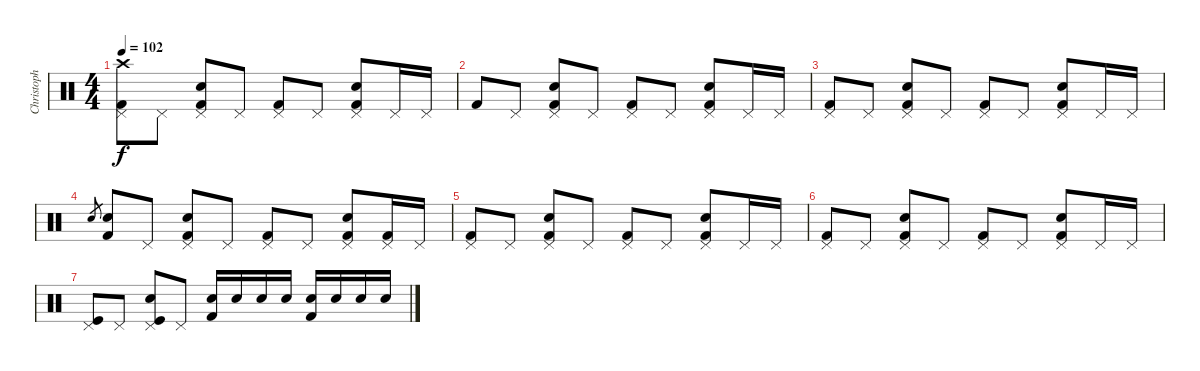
\track ("Christoph Schneider" "Christoph ") {instrument percussion}
\staff {score}
\articulation defaults
\ts (4 4)
\tempo 102
\clef neutral
\ks c
("Crash high (hit)" "Pedal Hi-Hat (hit)" "Kick (hit) 2").8{dy f} "Pedal Hi-Hat (hit)".8 ("Pedal Hi-Hat (hit)" "Snare (hit) 2" "Kick (hit) 2").8 "Pedal Hi-Hat (hit)".8 ("Pedal Hi-Hat (hit)" "Kick (hit) 2").8 "Pedal Hi-Hat (hit)".8 ("Pedal Hi-Hat (hit)" "Snare (hit) 2" "Kick (hit) 2").8 "Pedal Hi-Hat (hit)".16 "Pedal Hi-Hat (hit)".16 |
"Kick (hit) 2".8 "Pedal Hi-Hat (hit)".8 ("Pedal Hi-Hat (hit)" "Snare (hit) 2" "Kick (hit) 2").8 "Pedal Hi-Hat (hit)".8 ("Pedal Hi-Hat (hit)" "Kick (hit) 2").8 "Pedal Hi-Hat (hit)".8 ("Pedal Hi-Hat (hit)" "Snare (hit) 2" "Kick (hit) 2").8 "Pedal Hi-Hat (hit)".16 "Pedal Hi-Hat (hit)".16 |
("Pedal Hi-Hat (hit)" "Kick (hit) 2").8 "Pedal Hi-Hat (hit)".8 ("Pedal Hi-Hat (hit)" "Snare (hit) 2" "Kick (hit) 2").8 "Pedal Hi-Hat (hit)".8 ("Pedal Hi-Hat (hit)" "Kick (hit) 2").8 "Pedal Hi-Hat (hit)".8 ("Pedal Hi-Hat (hit)" "Snare (hit) 2" "Kick (hit) 2").8 "Pedal Hi-Hat (hit)".16 "Pedal Hi-Hat (hit)".16 |
"Snare (hit) 2".8{gr} ("Snare (hit) 2" "Kick (hit) 2").8 "Pedal Hi-Hat (hit)".8 ("Pedal Hi-Hat (hit)" "Snare (hit) 2" "Kick (hit) 2").8 "Pedal Hi-Hat (hit)".8 ("Pedal Hi-Hat (hit)" "Kick (hit) 2").8 "Pedal Hi-Hat (hit)".8 ("Pedal Hi-Hat (hit)" "Snare (hit) 2" "Kick (hit) 2").8 ("Pedal Hi-Hat (hit)" "Kick (hit) 2").16 "Pedal Hi-Hat (hit)".16 |
("Pedal Hi-Hat (hit)" "Kick (hit) 2").8 "Pedal Hi-Hat (hit)".8 ("Pedal Hi-Hat (hit)" "Snare (hit) 2" "Kick (hit) 2").8 "Pedal Hi-Hat (hit)".8 ("Pedal Hi-Hat (hit)" "Kick (hit) 2").8 "Pedal Hi-Hat (hit)".8 ("Pedal Hi-Hat (hit)" "Snare (hit) 2" "Kick (hit) 2").8 "Pedal Hi-Hat (hit)".16 "Pedal Hi-Hat (hit)".16 |
("Pedal Hi-Hat (hit)" "Kick (hit) 2").8 "Pedal Hi-Hat (hit)".8 ("Pedal Hi-Hat (hit)" "Snare (hit) 2" "Kick (hit) 2").8 "Pedal Hi-Hat (hit)".8 ("Pedal Hi-Hat (hit)" "Kick (hit) 2").8 "Pedal Hi-Hat (hit)".8 ("Pedal Hi-Hat (hit)" "Snare (hit) 2" "Kick (hit) 2").8 "Pedal Hi-Hat (hit)".16 "Pedal Hi-Hat (hit)".16 |
("Pedal Hi-Hat (hit)" "Kick (hit)").8 "Pedal Hi-Hat (hit)".8 ("Pedal Hi-Hat (hit)" "Snare (hit) 2" "Kick (hit)").8 "Pedal Hi-Hat (hit)".8 ("Snare (hit) 2" "Kick (hit) 2").16 "Snare (hit) 2".16 "Snare (hit) 2".16 "Snare (hit) 2".16 ("Snare (hit) 2" "Kick (hit) 2").16 "Snare (hit) 2".16 "Snare (hit) 2".16 "Snare (hit) 2".16
